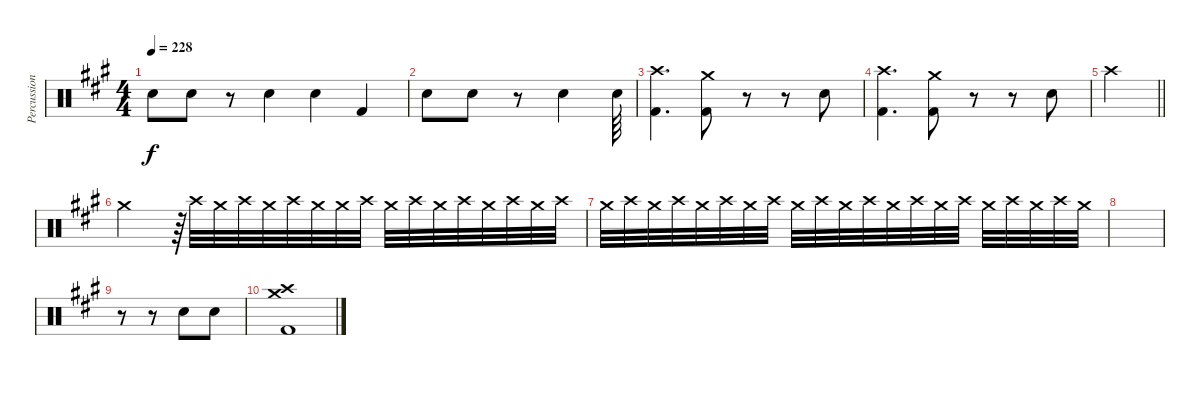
\track ("Percussion" "Percussion") {instrument percussion}
\staff {score}
\articulation defaults
\ts (4 4)
\tempo 228
\clef neutral
\ks a "Snare (hit) 2".8{dy f} "Snare (hit) 2".8
r.8 "Snare (hit) 2".4 "Snare (hit) 2".4 "Kick (hit) 2".4 |
"Snare (hit) 2".8 "Snare (hit) 2".8 r.8 "Snare (hit) 2".4 "Snare (hit) 2".64 |
("Kick (hit) 2" "Crash high (hit)").4{d} ("Kick (hit) 2" "Crash medium (hit)").8 r.8 r.8 "Snare (hit) 2".8 |
("Kick (hit) 2" "Crash high (hit)").4{d} ("Kick (hit) 2" "Crash medium (hit)").8 r.8 r.8 "Snare (hit) 2".8 |
\barLineRight lightlight "Crash high (hit)".4
|
"Crash medium (hit)".2 r.64 "Crash high (hit)".32 "Crash medium (hit)".32 "Crash high (hit)".32 "Crash medium (hit)".32 "Crash high (hit)".32 "Crash medium (hit)".32 "Crash medium (hit)".32 "Crash high (hit)".32 "Crash medium (hit)".32 "Crash high (hit)".32 "Crash medium (hit)".32 "Crash high (hit)".32 "Crash medium (hit)".32 "Crash high (hit)".32 "Crash medium (hit)".32 "Crash high (hit)".32 |
"Crash medium (hit)".32 "Crash high (hit)".32 "Crash medium (hit)".32 "Crash high (hit)".32 "Crash medium (hit)".32 "Crash high (hit)".32 "Crash medium (hit)".32 "Crash high (hit)".32 "Crash medium (hit)".32 "Crash high (hit)".32 "Crash medium (hit)".32 "Crash high (hit)".32 "Crash medium (hit)".32 "Crash high (hit)".32 "Crash medium (hit)".32 "Crash high (hit)".32 "Crash medium (hit)".32 "Crash high (hit)".32 "Crash medium (hit)".32 "Crash high (hit)".32 "Crash medium (hit)".32 |
|
r.8 r.8 "Snare (hit) 2".8 "Snare (hit) 2".8 |
("Kick (hit) 2" "Crash high (hit)" "Crash medium (hit)").1
